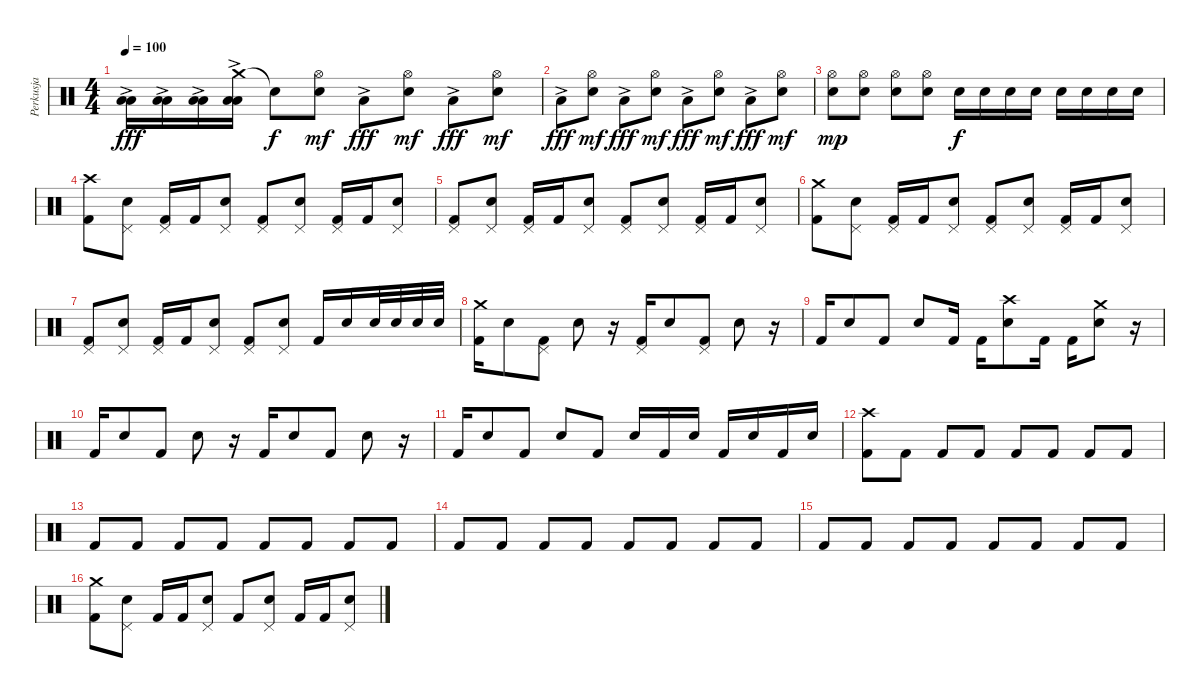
\track ("Perkusja" "Perkusja") {instrument percussion}
\staff {score}
\articulation defaults
\ts (4 4)
\tempo 100
\clef neutral
\ks c
("Low Tom (hit)"{ac} "Low Tom (hit)").16{dy fff} ("Low Tom (hit)"{ac} "Low Tom (hit)").16 ("Low Tom (hit)"{ac} "Low Tom (hit)").16 ("Crash medium (hit)" "Low Tom (hit)"{ac} "Low Tom (hit)").16 "Snare (hit)"{t}.8{dy f} ("Hi-Hat (open)" "Snare (hit) 2").8{dy mf} "Low Tom (hit)"{ac}.8{dy fff} ("Hi-Hat (open)" "Snare (hit) 2").8{dy mf} "Low Tom (hit)"{ac}.8{dy fff} ("Hi-Hat (open)" "Snare (hit) 2").8{dy mf} |
"Low Tom (hit)"{ac}.8{dy fff} ("Hi-Hat (open)" "Snare (hit) 2").8{dy mf} "Low Tom (hit)"{ac}.8{dy fff} ("Hi-Hat (open)" "Snare (hit) 2").8{dy mf} "Low Tom (hit)"{ac}.8{dy fff} ("Hi-Hat (open)" "Snare (hit) 2").8{dy mf} "Low Tom (hit)"{ac}.8{dy fff} ("Hi-Hat (open)" "Snare (hit) 2").8{dy mf} |
("Hi-Hat (open)" "Snare (hit) 2").8{dy mp} ("Hi-Hat (open)" "Snare (hit) 2").8 ("Hi-Hat (open)" "Snare (hit) 2").8 ("Hi-Hat (open)" "Snare (hit) 2").8 "Snare (hit) 2".16{dy f} "Snare (hit) 2".16 "Snare (hit) 2".16 "Snare (hit) 2".16 "Snare (hit) 2".16 "Snare (hit) 2".16 "Snare (hit) 2".16 "Snare (hit) 2".16 |
("Crash high (hit)" "Kick (hit) 2").8 ("Pedal Hi-Hat (hit)" "Snare (hit) 2").8 ("Pedal Hi-Hat (hit)" "Kick (hit) 2").16 "Kick (hit) 2".16 ("Pedal Hi-Hat (hit)" "Snare (hit) 2").8 ("Pedal Hi-Hat (hit)" "Kick (hit) 2").8 ("Pedal Hi-Hat (hit)" "Snare (hit) 2").8 ("Pedal Hi-Hat (hit)" "Kick (hit) 2").16 "Kick (hit) 2".16 ("Pedal Hi-Hat (hit)" "Snare (hit) 2").8 |
("Pedal Hi-Hat (hit)" "Kick (hit) 2").8 ("Pedal Hi-Hat (hit)" "Snare (hit) 2").8 ("Pedal Hi-Hat (hit)" "Kick (hit) 2").16 "Kick (hit) 2".16 ("Pedal Hi-Hat (hit)" "Snare (hit) 2").8 ("Pedal Hi-Hat (hit)" "Kick (hit) 2").8 ("Pedal Hi-Hat (hit)" "Snare (hit) 2").8 ("Pedal Hi-Hat (hit)" "Kick (hit) 2").16 "Kick (hit) 2".16 ("Pedal Hi-Hat (hit)" "Snare (hit) 2").8 |
("Crash medium (hit)" "Kick (hit) 2").8 ("Pedal Hi-Hat (hit)" "Snare (hit) 2").8 ("Pedal Hi-Hat (hit)" "Kick (hit) 2").16 "Kick (hit) 2".16 ("Pedal Hi-Hat (hit)" "Snare (hit) 2").8 ("Pedal Hi-Hat (hit)" "Kick (hit) 2").8 ("Pedal Hi-Hat (hit)" "Snare (hit) 2").8 ("Pedal Hi-Hat (hit)" "Kick (hit) 2").16 "Kick (hit) 2".16 ("Pedal Hi-Hat (hit)" "Snare (hit) 2").8 |
("Pedal Hi-Hat (hit)" "Kick (hit) 2").8 ("Pedal Hi-Hat (hit)" "Snare (hit) 2").8 ("Pedal Hi-Hat (hit)" "Kick (hit) 2").16 "Kick (hit) 2".16 ("Pedal Hi-Hat (hit)" "Snare (hit) 2").8 ("Pedal Hi-Hat (hit)" "Kick (hit) 2").8 ("Pedal Hi-Hat (hit)" "Snare (hit) 2").8 "Kick (hit) 2".16 "Snare (hit) 2".16 "Snare (hit) 2".32 "Snare (hit) 2".32 "Snare (hit) 2".32 "Snare (hit) 2".32 |
("Crash medium (hit)" "Kick (hit) 2").16 "Snare (hit) 2".8 ("Pedal Hi-Hat (hit)" "Kick (hit) 2").8 "Snare (hit) 2".8 r.16 ("Pedal Hi-Hat (hit)" "Kick (hit) 2").16 "Snare (hit) 2".8 ("Pedal Hi-Hat (hit)" "Kick (hit) 2").8 "Snare (hit) 2".8 r.16 |
"Kick (hit) 2".16 "Snare (hit) 2".8 "Kick (hit) 2".8 "Snare (hit) 2".8 "Kick (hit) 2".16 "Kick (hit) 2".16 ("Crash high (hit)" "Snare (hit) 2").8 "Kick (hit) 2".16 "Kick (hit) 2".16 ("Crash medium (hit)" "Snare (hit) 2").8 r.16 |
"Kick (hit) 2".16 "Snare (hit) 2".8 "Kick (hit) 2".8 "Snare (hit) 2".8 r.16 "Kick (hit) 2".16 "Snare (hit) 2".8 "Kick (hit) 2".8 "Snare (hit) 2".8 r.16 |
"Kick (hit) 2".16 "Snare (hit) 2".8 "Kick (hit) 2".8 "Snare (hit) 2".8 "Kick (hit) 2".8 "Snare (hit) 2".16 "Kick (hit) 2".16 "Snare (hit) 2".16 "Kick (hit) 2".16 "Snare (hit) 2".16 "Kick (hit) 2".16 "Snare (hit) 2".16 |
("Crash high (hit)" "Kick (hit) 2").8 "Kick (hit) 2".8 "Kick (hit) 2".8 "Kick (hit) 2".8 "Kick (hit) 2".8 "Kick (hit) 2".8 "Kick (hit) 2".8 "Kick (hit) 2".8 |
"Kick (hit) 2".8 "Kick (hit) 2".8 "Kick (hit) 2".8 "Kick (hit) 2".8 "Kick (hit) 2".8 "Kick (hit) 2".8 "Kick (hit) 2".8 "Kick (hit) 2".8 |
"Kick (hit) 2".8 "Kick (hit) 2".8 "Kick (hit) 2".8 "Kick (hit) 2".8 "Kick (hit) 2".8 "Kick (hit) 2".8 "Kick (hit) 2".8 "Kick (hit) 2".8 |
"Kick (hit) 2".8 "Kick (hit) 2".8 "Kick (hit) 2".8 "Kick (hit) 2".8 "Kick (hit) 2".8 "Kick (hit) 2".8 "Kick (hit) 2".8 "Kick (hit) 2".8 |
("Crash medium (hit)" "Kick (hit) 2").8 ("Pedal Hi-Hat (hit)" "Snare (hit) 2").8 "Kick (hit) 2".16 "Kick (hit) 2".16 ("Pedal Hi-Hat (hit)" "Snare (hit) 2").8 "Kick (hit) 2".8 ("Pedal Hi-Hat (hit)" "Snare (hit) 2").8 "Kick (hit) 2".16 "Kick (hit) 2".16 ("Pedal Hi-Hat (hit)" "Snare (hit) 2").8
